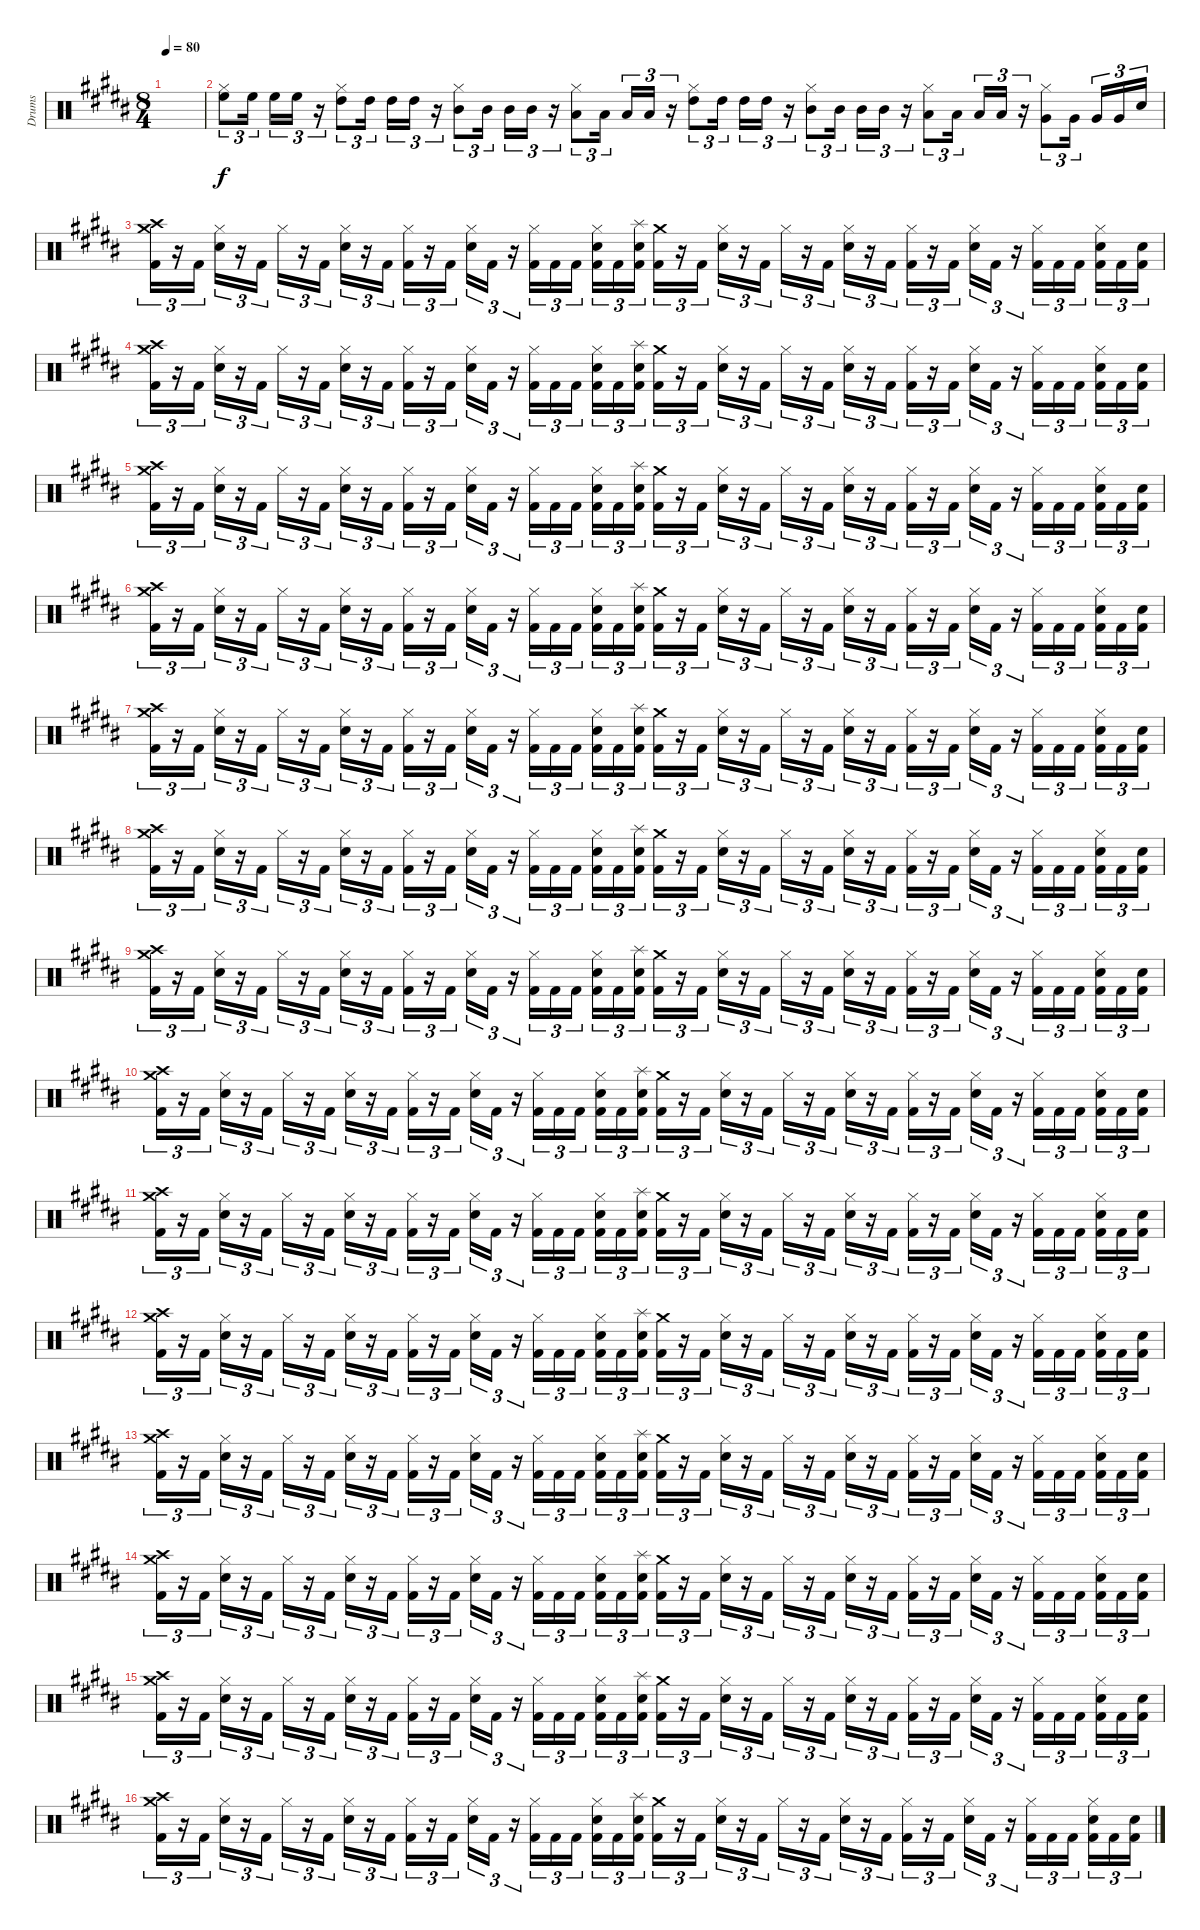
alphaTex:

\track ("Drums" "Drums") {instrument percussion}
\staff {score}
\articulation defaults
\ts (8 4)
\tempo 80
\clef neutral
\ks g#minor
|
("Hi-Hat (closed)" "High Floor Tom (hit)").8{tu (3 2)} "High Floor Tom (hit)".16{tu (3 2)} "High Floor Tom (hit)".16{tu (3 2)} "High Floor Tom (hit)".16{tu (3 2)} r.16{tu (3 2)} ("Hi-Hat (closed)" "High Tom (hit)").8{tu (3 2)} "High Tom (hit)".16{tu (3 2)} "High Tom (hit)".16{tu (3 2)} "High Tom (hit)".16{tu (3 2)} r.16{tu (3 2)} ("Hi-Hat (closed)" "Mid Tom (hit)").8{tu (3 2)} "Mid Tom (hit)".16{tu (3 2)} "Mid Tom (hit)".16{tu (3 2)} "Mid Tom (hit)".16{tu (3 2)} r.16{tu (3 2)} ("Hi-Hat (closed)" "Low Tom (hit)").8{tu (3 2)} "Low Tom (hit)".16{tu (3 2)} "Low Tom (hit)".16{tu (3 2)} "Low Tom (hit)".16{tu (3 2)} r.16{tu (3 2)} ("Hi-Hat (closed)" "High Tom (hit)").8{tu (3 2)} "High Tom (hit)".16{tu (3 2)} "High Tom (hit)".16{tu (3 2)} "High Tom (hit)".16{tu (3 2)} r.16{tu (3 2)} ("Hi-Hat (closed)" "Mid Tom (hit)").8{tu (3 2)} "Mid Tom (hit)".16{tu (3 2)} "Mid Tom (hit)".16{tu (3 2)} "Mid Tom (hit)".16{tu (3 2)} r.16{tu (3 2)} ("Hi-Hat (closed)" "Low Tom (hit)").8{tu (3 2)} "Low Tom (hit)".16{tu (3 2)} "Low Tom (hit)".16{tu (3 2)} "Low Tom (hit)".16{tu (3 2)} r.16{tu (3 2)} ("Hi-Hat (closed)" "Very Low Tom (hit)").8{tu (3 2)} "Very Low Tom (hit)".16{tu (3 2)} "Very Low Tom (hit)".16{tu (3 2)} "Very Low Tom (hit)".16{tu (3 2)} "Snare (hit) 2".16{tu (3 2)} |
("Crash medium (hit)" "Crash high (hit)" "Kick (hit) 2").16{tu (3 2)} r.16{tu (3 2)} "Kick (hit) 2".16{tu (3 2)} ("Hi-Hat (closed)" "Snare (hit) 2").16{tu (3 2)} r.16{tu (3 2)} "Kick (hit) 2".16{tu (3 2)} "Hi-Hat (closed)".16{tu (3 2)} r.16{tu (3 2)} "Kick (hit) 2".16{tu (3 2)} ("Hi-Hat (closed)" "Snare (hit) 2").16{tu (3 2)} r.16{tu (3 2)} "Kick (hit) 2".16{tu (3 2)} ("Hi-Hat (closed)" "Kick (hit) 2").16{tu (3 2)} r.16{tu (3 2)} "Kick (hit) 2".16{tu (3 2)} ("Hi-Hat (closed)" "Snare (hit) 2").16{tu (3 2)} "Kick (hit) 2".16{tu (3 2)} r.16{tu (3 2)} ("Hi-Hat (closed)" "Kick (hit) 2").16{tu (3 2)} "Kick (hit) 2".16{tu (3 2)} "Kick (hit) 2".16{tu (3 2)} ("Hi-Hat (closed)" "Snare (hit) 2" "Kick (hit) 2").16{tu (3 2)} "Kick (hit) 2".16{tu (3 2)} ("Splash (hit)" "Snare (hit) 2" "Kick (hit) 2").16{tu (3 2)} ("Crash medium (hit)" "Kick (hit) 2").16{tu (3 2)} r.16{tu (3 2)} "Kick (hit) 2".16{tu (3 2)} ("Hi-Hat (closed)" "Snare (hit) 2").16{tu (3 2)} r.16{tu (3 2)} "Kick (hit) 2".16{tu (3 2)} "Hi-Hat (closed)".16{tu (3 2)} r.16{tu (3 2)} "Kick (hit) 2".16{tu (3 2)} ("Hi-Hat (closed)" "Snare (hit) 2").16{tu (3 2)} r.16{tu (3 2)} "Kick (hit) 2".16{tu (3 2)} ("Hi-Hat (closed)" "Kick (hit) 2").16{tu (3 2)} r.16{tu (3 2)} "Kick (hit) 2".16{tu (3 2)} ("Hi-Hat (closed)" "Snare (hit) 2").16{tu (3 2)} "Kick (hit) 2".16{tu (3 2)} r.16{tu (3 2)} ("Hi-Hat (closed)" "Kick (hit) 2").16{tu (3 2)} "Kick (hit) 2".16{tu (3 2)} "Kick (hit) 2".16{tu (3 2)} ("Hi-Hat (closed)" "Snare (hit) 2" "Kick (hit) 2").16{tu (3 2)} "Kick (hit) 2".16{tu (3 2)} ("Snare (hit) 2" "Kick (hit) 2").16{tu (3 2)} |
("Crash medium (hit)" "Crash high (hit)" "Kick (hit) 2").16{tu (3 2)} r.16{tu (3 2)} "Kick (hit) 2".16{tu (3 2)} ("Hi-Hat (closed)" "Snare (hit) 2").16{tu (3 2)} r.16{tu (3 2)} "Kick (hit) 2".16{tu (3 2)} "Hi-Hat (closed)".16{tu (3 2)} r.16{tu (3 2)} "Kick (hit) 2".16{tu (3 2)} ("Hi-Hat (closed)" "Snare (hit) 2").16{tu (3 2)} r.16{tu (3 2)} "Kick (hit) 2".16{tu (3 2)} ("Hi-Hat (closed)" "Kick (hit) 2").16{tu (3 2)} r.16{tu (3 2)} "Kick (hit) 2".16{tu (3 2)} ("Hi-Hat (closed)" "Snare (hit) 2").16{tu (3 2)} "Kick (hit) 2".16{tu (3 2)} r.16{tu (3 2)} ("Hi-Hat (closed)" "Kick (hit) 2").16{tu (3 2)} "Kick (hit) 2".16{tu (3 2)} "Kick (hit) 2".16{tu (3 2)} ("Hi-Hat (closed)" "Snare (hit) 2" "Kick (hit) 2").16{tu (3 2)} "Kick (hit) 2".16{tu (3 2)} ("Splash (hit)" "Snare (hit) 2" "Kick (hit) 2").16{tu (3 2)} ("Crash medium (hit)" "Kick (hit) 2").16{tu (3 2)} r.16{tu (3 2)} "Kick (hit) 2".16{tu (3 2)} ("Hi-Hat (closed)" "Snare (hit) 2").16{tu (3 2)} r.16{tu (3 2)} "Kick (hit) 2".16{tu (3 2)} "Hi-Hat (closed)".16{tu (3 2)} r.16{tu (3 2)} "Kick (hit) 2".16{tu (3 2)} ("Hi-Hat (closed)" "Snare (hit) 2").16{tu (3 2)} r.16{tu (3 2)} "Kick (hit) 2".16{tu (3 2)} ("Hi-Hat (closed)" "Kick (hit) 2").16{tu (3 2)} r.16{tu (3 2)} "Kick (hit) 2".16{tu (3 2)} ("Hi-Hat (closed)" "Snare (hit) 2").16{tu (3 2)} "Kick (hit) 2".16{tu (3 2)} r.16{tu (3 2)} ("Hi-Hat (closed)" "Kick (hit) 2").16{tu (3 2)} "Kick (hit) 2".16{tu (3 2)} "Kick (hit) 2".16{tu (3 2)} ("Hi-Hat (closed)" "Snare (hit) 2" "Kick (hit) 2").16{tu (3 2)} "Kick (hit) 2".16{tu (3 2)} ("Snare (hit) 2" "Kick (hit) 2").16{tu (3 2)} |
("Crash medium (hit)" "Crash high (hit)" "Kick (hit) 2").16{tu (3 2)} r.16{tu (3 2)} "Kick (hit) 2".16{tu (3 2)} ("Hi-Hat (closed)" "Snare (hit) 2").16{tu (3 2)} r.16{tu (3 2)} "Kick (hit) 2".16{tu (3 2)} "Hi-Hat (closed)".16{tu (3 2)} r.16{tu (3 2)} "Kick (hit) 2".16{tu (3 2)} ("Hi-Hat (closed)" "Snare (hit) 2").16{tu (3 2)} r.16{tu (3 2)} "Kick (hit) 2".16{tu (3 2)} ("Hi-Hat (closed)" "Kick (hit) 2").16{tu (3 2)} r.16{tu (3 2)} "Kick (hit) 2".16{tu (3 2)} ("Hi-Hat (closed)" "Snare (hit) 2").16{tu (3 2)} "Kick (hit) 2".16{tu (3 2)} r.16{tu (3 2)} ("Hi-Hat (closed)" "Kick (hit) 2").16{tu (3 2)} "Kick (hit) 2".16{tu (3 2)} "Kick (hit) 2".16{tu (3 2)} ("Hi-Hat (closed)" "Snare (hit) 2" "Kick (hit) 2").16{tu (3 2)} "Kick (hit) 2".16{tu (3 2)} ("Splash (hit)" "Snare (hit) 2" "Kick (hit) 2").16{tu (3 2)} ("Crash medium (hit)" "Kick (hit) 2").16{tu (3 2)} r.16{tu (3 2)} "Kick (hit) 2".16{tu (3 2)} ("Hi-Hat (closed)" "Snare (hit) 2").16{tu (3 2)} r.16{tu (3 2)} "Kick (hit) 2".16{tu (3 2)} "Hi-Hat (closed)".16{tu (3 2)} r.16{tu (3 2)} "Kick (hit) 2".16{tu (3 2)} ("Hi-Hat (closed)" "Snare (hit) 2").16{tu (3 2)} r.16{tu (3 2)} "Kick (hit) 2".16{tu (3 2)} ("Hi-Hat (closed)" "Kick (hit) 2").16{tu (3 2)} r.16{tu (3 2)} "Kick (hit) 2".16{tu (3 2)} ("Hi-Hat (closed)" "Snare (hit) 2").16{tu (3 2)} "Kick (hit) 2".16{tu (3 2)} r.16{tu (3 2)} ("Hi-Hat (closed)" "Kick (hit) 2").16{tu (3 2)} "Kick (hit) 2".16{tu (3 2)} "Kick (hit) 2".16{tu (3 2)} ("Hi-Hat (closed)" "Snare (hit) 2" "Kick (hit) 2").16{tu (3 2)} "Kick (hit) 2".16{tu (3 2)} ("Snare (hit) 2" "Kick (hit) 2").16{tu (3 2)} |
("Crash medium (hit)" "Crash high (hit)" "Kick (hit) 2").16{tu (3 2)} r.16{tu (3 2)} "Kick (hit) 2".16{tu (3 2)} ("Hi-Hat (closed)" "Snare (hit) 2").16{tu (3 2)} r.16{tu (3 2)} "Kick (hit) 2".16{tu (3 2)} "Hi-Hat (closed)".16{tu (3 2)} r.16{tu (3 2)} "Kick (hit) 2".16{tu (3 2)} ("Hi-Hat (closed)" "Snare (hit) 2").16{tu (3 2)} r.16{tu (3 2)} "Kick (hit) 2".16{tu (3 2)} ("Hi-Hat (closed)" "Kick (hit) 2").16{tu (3 2)} r.16{tu (3 2)} "Kick (hit) 2".16{tu (3 2)} ("Hi-Hat (closed)" "Snare (hit) 2").16{tu (3 2)} "Kick (hit) 2".16{tu (3 2)} r.16{tu (3 2)} ("Hi-Hat (closed)" "Kick (hit) 2").16{tu (3 2)} "Kick (hit) 2".16{tu (3 2)} "Kick (hit) 2".16{tu (3 2)} ("Hi-Hat (closed)" "Snare (hit) 2" "Kick (hit) 2").16{tu (3 2)} "Kick (hit) 2".16{tu (3 2)} ("Splash (hit)" "Snare (hit) 2" "Kick (hit) 2").16{tu (3 2)} ("Crash medium (hit)" "Kick (hit) 2").16{tu (3 2)} r.16{tu (3 2)} "Kick (hit) 2".16{tu (3 2)} ("Hi-Hat (closed)" "Snare (hit) 2").16{tu (3 2)} r.16{tu (3 2)} "Kick (hit) 2".16{tu (3 2)} "Hi-Hat (closed)".16{tu (3 2)} r.16{tu (3 2)} "Kick (hit) 2".16{tu (3 2)} ("Hi-Hat (closed)" "Snare (hit) 2").16{tu (3 2)} r.16{tu (3 2)} "Kick (hit) 2".16{tu (3 2)} ("Hi-Hat (closed)" "Kick (hit) 2").16{tu (3 2)} r.16{tu (3 2)} "Kick (hit) 2".16{tu (3 2)} ("Hi-Hat (closed)" "Snare (hit) 2").16{tu (3 2)} "Kick (hit) 2".16{tu (3 2)} r.16{tu (3 2)} ("Hi-Hat (closed)" "Kick (hit) 2").16{tu (3 2)} "Kick (hit) 2".16{tu (3 2)} "Kick (hit) 2".16{tu (3 2)} ("Hi-Hat (closed)" "Snare (hit) 2" "Kick (hit) 2").16{tu (3 2)} "Kick (hit) 2".16{tu (3 2)} ("Snare (hit) 2" "Kick (hit) 2").16{tu (3 2)} |
("Crash medium (hit)" "Crash high (hit)" "Kick (hit) 2").16{tu (3 2)} r.16{tu (3 2)} "Kick (hit) 2".16{tu (3 2)} ("Hi-Hat (closed)" "Snare (hit) 2").16{tu (3 2)} r.16{tu (3 2)} "Kick (hit) 2".16{tu (3 2)} "Hi-Hat (closed)".16{tu (3 2)} r.16{tu (3 2)} "Kick (hit) 2".16{tu (3 2)} ("Hi-Hat (closed)" "Snare (hit) 2").16{tu (3 2)} r.16{tu (3 2)} "Kick (hit) 2".16{tu (3 2)} ("Hi-Hat (closed)" "Kick (hit) 2").16{tu (3 2)} r.16{tu (3 2)} "Kick (hit) 2".16{tu (3 2)} ("Hi-Hat (closed)" "Snare (hit) 2").16{tu (3 2)} "Kick (hit) 2".16{tu (3 2)} r.16{tu (3 2)} ("Hi-Hat (closed)" "Kick (hit) 2").16{tu (3 2)} "Kick (hit) 2".16{tu (3 2)} "Kick (hit) 2".16{tu (3 2)} ("Hi-Hat (closed)" "Snare (hit) 2" "Kick (hit) 2").16{tu (3 2)} "Kick (hit) 2".16{tu (3 2)} ("Splash (hit)" "Snare (hit) 2" "Kick (hit) 2").16{tu (3 2)} ("Crash medium (hit)" "Kick (hit) 2").16{tu (3 2)} r.16{tu (3 2)} "Kick (hit) 2".16{tu (3 2)} ("Hi-Hat (closed)" "Snare (hit) 2").16{tu (3 2)} r.16{tu (3 2)} "Kick (hit) 2".16{tu (3 2)} "Hi-Hat (closed)".16{tu (3 2)} r.16{tu (3 2)} "Kick (hit) 2".16{tu (3 2)} ("Hi-Hat (closed)" "Snare (hit) 2").16{tu (3 2)} r.16{tu (3 2)} "Kick (hit) 2".16{tu (3 2)} ("Hi-Hat (closed)" "Kick (hit) 2").16{tu (3 2)} r.16{tu (3 2)} "Kick (hit) 2".16{tu (3 2)} ("Hi-Hat (closed)" "Snare (hit) 2").16{tu (3 2)} "Kick (hit) 2".16{tu (3 2)} r.16{tu (3 2)} ("Hi-Hat (closed)" "Kick (hit) 2").16{tu (3 2)} "Kick (hit) 2".16{tu (3 2)} "Kick (hit) 2".16{tu (3 2)} ("Hi-Hat (closed)" "Snare (hit) 2" "Kick (hit) 2").16{tu (3 2)} "Kick (hit) 2".16{tu (3 2)} ("Snare (hit) 2" "Kick (hit) 2").16{tu (3 2)} |
("Crash medium (hit)" "Crash high (hit)" "Kick (hit) 2").16{tu (3 2)} r.16{tu (3 2)} "Kick (hit) 2".16{tu (3 2)} ("Hi-Hat (closed)" "Snare (hit) 2").16{tu (3 2)} r.16{tu (3 2)} "Kick (hit) 2".16{tu (3 2)} "Hi-Hat (closed)".16{tu (3 2)} r.16{tu (3 2)} "Kick (hit) 2".16{tu (3 2)} ("Hi-Hat (closed)" "Snare (hit) 2").16{tu (3 2)} r.16{tu (3 2)} "Kick (hit) 2".16{tu (3 2)} ("Hi-Hat (closed)" "Kick (hit) 2").16{tu (3 2)} r.16{tu (3 2)} "Kick (hit) 2".16{tu (3 2)} ("Hi-Hat (closed)" "Snare (hit) 2").16{tu (3 2)} "Kick (hit) 2".16{tu (3 2)} r.16{tu (3 2)} ("Hi-Hat (closed)" "Kick (hit) 2").16{tu (3 2)} "Kick (hit) 2".16{tu (3 2)} "Kick (hit) 2".16{tu (3 2)} ("Hi-Hat (closed)" "Snare (hit) 2" "Kick (hit) 2").16{tu (3 2)} "Kick (hit) 2".16{tu (3 2)} ("Splash (hit)" "Snare (hit) 2" "Kick (hit) 2").16{tu (3 2)} ("Crash medium (hit)" "Kick (hit) 2").16{tu (3 2)} r.16{tu (3 2)} "Kick (hit) 2".16{tu (3 2)} ("Hi-Hat (closed)" "Snare (hit) 2").16{tu (3 2)} r.16{tu (3 2)} "Kick (hit) 2".16{tu (3 2)} "Hi-Hat (closed)".16{tu (3 2)} r.16{tu (3 2)} "Kick (hit) 2".16{tu (3 2)} ("Hi-Hat (closed)" "Snare (hit) 2").16{tu (3 2)} r.16{tu (3 2)} "Kick (hit) 2".16{tu (3 2)} ("Hi-Hat (closed)" "Kick (hit) 2").16{tu (3 2)} r.16{tu (3 2)} "Kick (hit) 2".16{tu (3 2)} ("Hi-Hat (closed)" "Snare (hit) 2").16{tu (3 2)} "Kick (hit) 2".16{tu (3 2)} r.16{tu (3 2)} ("Hi-Hat (closed)" "Kick (hit) 2").16{tu (3 2)} "Kick (hit) 2".16{tu (3 2)} "Kick (hit) 2".16{tu (3 2)} ("Hi-Hat (closed)" "Snare (hit) 2" "Kick (hit) 2").16{tu (3 2)} "Kick (hit) 2".16{tu (3 2)} ("Snare (hit) 2" "Kick (hit) 2").16{tu (3 2)} |
("Crash medium (hit)" "Crash high (hit)" "Kick (hit) 2").16{tu (3 2)} r.16{tu (3 2)} "Kick (hit) 2".16{tu (3 2)} ("Hi-Hat (closed)" "Snare (hit) 2").16{tu (3 2)} r.16{tu (3 2)} "Kick (hit) 2".16{tu (3 2)} "Hi-Hat (closed)".16{tu (3 2)} r.16{tu (3 2)} "Kick (hit) 2".16{tu (3 2)} ("Hi-Hat (closed)" "Snare (hit) 2").16{tu (3 2)} r.16{tu (3 2)} "Kick (hit) 2".16{tu (3 2)} ("Hi-Hat (closed)" "Kick (hit) 2").16{tu (3 2)} r.16{tu (3 2)} "Kick (hit) 2".16{tu (3 2)} ("Hi-Hat (closed)" "Snare (hit) 2").16{tu (3 2)} "Kick (hit) 2".16{tu (3 2)} r.16{tu (3 2)} ("Hi-Hat (closed)" "Kick (hit) 2").16{tu (3 2)} "Kick (hit) 2".16{tu (3 2)} "Kick (hit) 2".16{tu (3 2)} ("Hi-Hat (closed)" "Snare (hit) 2" "Kick (hit) 2").16{tu (3 2)} "Kick (hit) 2".16{tu (3 2)} ("Splash (hit)" "Snare (hit) 2" "Kick (hit) 2").16{tu (3 2)} ("Crash medium (hit)" "Kick (hit) 2").16{tu (3 2)} r.16{tu (3 2)} "Kick (hit) 2".16{tu (3 2)} ("Hi-Hat (closed)" "Snare (hit) 2").16{tu (3 2)} r.16{tu (3 2)} "Kick (hit) 2".16{tu (3 2)} "Hi-Hat (closed)".16{tu (3 2)} r.16{tu (3 2)} "Kick (hit) 2".16{tu (3 2)} ("Hi-Hat (closed)" "Snare (hit) 2").16{tu (3 2)} r.16{tu (3 2)} "Kick (hit) 2".16{tu (3 2)} ("Hi-Hat (closed)" "Kick (hit) 2").16{tu (3 2)} r.16{tu (3 2)} "Kick (hit) 2".16{tu (3 2)} ("Hi-Hat (closed)" "Snare (hit) 2").16{tu (3 2)} "Kick (hit) 2".16{tu (3 2)} r.16{tu (3 2)} ("Hi-Hat (closed)" "Kick (hit) 2").16{tu (3 2)} "Kick (hit) 2".16{tu (3 2)} "Kick (hit) 2".16{tu (3 2)} ("Hi-Hat (closed)" "Snare (hit) 2" "Kick (hit) 2").16{tu (3 2)} "Kick (hit) 2".16{tu (3 2)} ("Snare (hit) 2" "Kick (hit) 2").16{tu (3 2)} |
("Crash medium (hit)" "Crash high (hit)" "Kick (hit) 2").16{tu (3 2)} r.16{tu (3 2)} "Kick (hit) 2".16{tu (3 2)} ("Hi-Hat (closed)" "Snare (hit) 2").16{tu (3 2)} r.16{tu (3 2)} "Kick (hit) 2".16{tu (3 2)} "Hi-Hat (closed)".16{tu (3 2)} r.16{tu (3 2)} "Kick (hit) 2".16{tu (3 2)} ("Hi-Hat (closed)" "Snare (hit) 2").16{tu (3 2)} r.16{tu (3 2)} "Kick (hit) 2".16{tu (3 2)} ("Hi-Hat (closed)" "Kick (hit) 2").16{tu (3 2)} r.16{tu (3 2)} "Kick (hit) 2".16{tu (3 2)} ("Hi-Hat (closed)" "Snare (hit) 2").16{tu (3 2)} "Kick (hit) 2".16{tu (3 2)} r.16{tu (3 2)} ("Hi-Hat (closed)" "Kick (hit) 2").16{tu (3 2)} "Kick (hit) 2".16{tu (3 2)} "Kick (hit) 2".16{tu (3 2)} ("Hi-Hat (closed)" "Snare (hit) 2" "Kick (hit) 2").16{tu (3 2)} "Kick (hit) 2".16{tu (3 2)} ("Splash (hit)" "Snare (hit) 2" "Kick (hit) 2").16{tu (3 2)} ("Crash medium (hit)" "Kick (hit) 2").16{tu (3 2)} r.16{tu (3 2)} "Kick (hit) 2".16{tu (3 2)} ("Hi-Hat (closed)" "Snare (hit) 2").16{tu (3 2)} r.16{tu (3 2)} "Kick (hit) 2".16{tu (3 2)} "Hi-Hat (closed)".16{tu (3 2)} r.16{tu (3 2)} "Kick (hit) 2".16{tu (3 2)} ("Hi-Hat (closed)" "Snare (hit) 2").16{tu (3 2)} r.16{tu (3 2)} "Kick (hit) 2".16{tu (3 2)} ("Hi-Hat (closed)" "Kick (hit) 2").16{tu (3 2)} r.16{tu (3 2)} "Kick (hit) 2".16{tu (3 2)} ("Hi-Hat (closed)" "Snare (hit) 2").16{tu (3 2)} "Kick (hit) 2".16{tu (3 2)} r.16{tu (3 2)} ("Hi-Hat (closed)" "Kick (hit) 2").16{tu (3 2)} "Kick (hit) 2".16{tu (3 2)} "Kick (hit) 2".16{tu (3 2)} ("Hi-Hat (closed)" "Snare (hit) 2" "Kick (hit) 2").16{tu (3 2)} "Kick (hit) 2".16{tu (3 2)} ("Snare (hit) 2" "Kick (hit) 2").16{tu (3 2)} |
("Crash medium (hit)" "Crash high (hit)" "Kick (hit) 2").16{tu (3 2)} r.16{tu (3 2)} "Kick (hit) 2".16{tu (3 2)} ("Hi-Hat (closed)" "Snare (hit) 2").16{tu (3 2)} r.16{tu (3 2)} "Kick (hit) 2".16{tu (3 2)} "Hi-Hat (closed)".16{tu (3 2)} r.16{tu (3 2)} "Kick (hit) 2".16{tu (3 2)} ("Hi-Hat (closed)" "Snare (hit) 2").16{tu (3 2)} r.16{tu (3 2)} "Kick (hit) 2".16{tu (3 2)} ("Hi-Hat (closed)" "Kick (hit) 2").16{tu (3 2)} r.16{tu (3 2)} "Kick (hit) 2".16{tu (3 2)} ("Hi-Hat (closed)" "Snare (hit) 2").16{tu (3 2)} "Kick (hit) 2".16{tu (3 2)} r.16{tu (3 2)} ("Hi-Hat (closed)" "Kick (hit) 2").16{tu (3 2)} "Kick (hit) 2".16{tu (3 2)} "Kick (hit) 2".16{tu (3 2)} ("Hi-Hat (closed)" "Snare (hit) 2" "Kick (hit) 2").16{tu (3 2)} "Kick (hit) 2".16{tu (3 2)} ("Splash (hit)" "Snare (hit) 2" "Kick (hit) 2").16{tu (3 2)} ("Crash medium (hit)" "Kick (hit) 2").16{tu (3 2)} r.16{tu (3 2)} "Kick (hit) 2".16{tu (3 2)} ("Hi-Hat (closed)" "Snare (hit) 2").16{tu (3 2)} r.16{tu (3 2)} "Kick (hit) 2".16{tu (3 2)} "Hi-Hat (closed)".16{tu (3 2)} r.16{tu (3 2)} "Kick (hit) 2".16{tu (3 2)} ("Hi-Hat (closed)" "Snare (hit) 2").16{tu (3 2)} r.16{tu (3 2)} "Kick (hit) 2".16{tu (3 2)} ("Hi-Hat (closed)" "Kick (hit) 2").16{tu (3 2)} r.16{tu (3 2)} "Kick (hit) 2".16{tu (3 2)} ("Hi-Hat (closed)" "Snare (hit) 2").16{tu (3 2)} "Kick (hit) 2".16{tu (3 2)} r.16{tu (3 2)} ("Hi-Hat (closed)" "Kick (hit) 2").16{tu (3 2)} "Kick (hit) 2".16{tu (3 2)} "Kick (hit) 2".16{tu (3 2)} ("Hi-Hat (closed)" "Snare (hit) 2" "Kick (hit) 2").16{tu (3 2)} "Kick (hit) 2".16{tu (3 2)} ("Snare (hit) 2" "Kick (hit) 2").16{tu (3 2)} |
("Crash medium (hit)" "Crash high (hit)" "Kick (hit) 2").16{tu (3 2)} r.16{tu (3 2)} "Kick (hit) 2".16{tu (3 2)} ("Hi-Hat (closed)" "Snare (hit) 2").16{tu (3 2)} r.16{tu (3 2)} "Kick (hit) 2".16{tu (3 2)} "Hi-Hat (closed)".16{tu (3 2)} r.16{tu (3 2)} "Kick (hit) 2".16{tu (3 2)} ("Hi-Hat (closed)" "Snare (hit) 2").16{tu (3 2)} r.16{tu (3 2)} "Kick (hit) 2".16{tu (3 2)} ("Hi-Hat (closed)" "Kick (hit) 2").16{tu (3 2)} r.16{tu (3 2)} "Kick (hit) 2".16{tu (3 2)} ("Hi-Hat (closed)" "Snare (hit) 2").16{tu (3 2)} "Kick (hit) 2".16{tu (3 2)} r.16{tu (3 2)} ("Hi-Hat (closed)" "Kick (hit) 2").16{tu (3 2)} "Kick (hit) 2".16{tu (3 2)} "Kick (hit) 2".16{tu (3 2)} ("Hi-Hat (closed)" "Snare (hit) 2" "Kick (hit) 2").16{tu (3 2)} "Kick (hit) 2".16{tu (3 2)} ("Splash (hit)" "Snare (hit) 2" "Kick (hit) 2").16{tu (3 2)} ("Crash medium (hit)" "Kick (hit) 2").16{tu (3 2)} r.16{tu (3 2)} "Kick (hit) 2".16{tu (3 2)} ("Hi-Hat (closed)" "Snare (hit) 2").16{tu (3 2)} r.16{tu (3 2)} "Kick (hit) 2".16{tu (3 2)} "Hi-Hat (closed)".16{tu (3 2)} r.16{tu (3 2)} "Kick (hit) 2".16{tu (3 2)} ("Hi-Hat (closed)" "Snare (hit) 2").16{tu (3 2)} r.16{tu (3 2)} "Kick (hit) 2".16{tu (3 2)} ("Hi-Hat (closed)" "Kick (hit) 2").16{tu (3 2)} r.16{tu (3 2)} "Kick (hit) 2".16{tu (3 2)} ("Hi-Hat (closed)" "Snare (hit) 2").16{tu (3 2)} "Kick (hit) 2".16{tu (3 2)} r.16{tu (3 2)} ("Hi-Hat (closed)" "Kick (hit) 2").16{tu (3 2)} "Kick (hit) 2".16{tu (3 2)} "Kick (hit) 2".16{tu (3 2)} ("Hi-Hat (closed)" "Snare (hit) 2" "Kick (hit) 2").16{tu (3 2)} "Kick (hit) 2".16{tu (3 2)} ("Snare (hit) 2" "Kick (hit) 2").16{tu (3 2)} |
("Crash medium (hit)" "Crash high (hit)" "Kick (hit) 2").16{tu (3 2)} r.16{tu (3 2)} "Kick (hit) 2".16{tu (3 2)} ("Hi-Hat (closed)" "Snare (hit) 2").16{tu (3 2)} r.16{tu (3 2)} "Kick (hit) 2".16{tu (3 2)} "Hi-Hat (closed)".16{tu (3 2)} r.16{tu (3 2)} "Kick (hit) 2".16{tu (3 2)} ("Hi-Hat (closed)" "Snare (hit) 2").16{tu (3 2)} r.16{tu (3 2)} "Kick (hit) 2".16{tu (3 2)} ("Hi-Hat (closed)" "Kick (hit) 2").16{tu (3 2)} r.16{tu (3 2)} "Kick (hit) 2".16{tu (3 2)} ("Hi-Hat (closed)" "Snare (hit) 2").16{tu (3 2)} "Kick (hit) 2".16{tu (3 2)} r.16{tu (3 2)} ("Hi-Hat (closed)" "Kick (hit) 2").16{tu (3 2)} "Kick (hit) 2".16{tu (3 2)} "Kick (hit) 2".16{tu (3 2)} ("Hi-Hat (closed)" "Snare (hit) 2" "Kick (hit) 2").16{tu (3 2)} "Kick (hit) 2".16{tu (3 2)} ("Splash (hit)" "Snare (hit) 2" "Kick (hit) 2").16{tu (3 2)} ("Crash medium (hit)" "Kick (hit) 2").16{tu (3 2)} r.16{tu (3 2)} "Kick (hit) 2".16{tu (3 2)} ("Hi-Hat (closed)" "Snare (hit) 2").16{tu (3 2)} r.16{tu (3 2)} "Kick (hit) 2".16{tu (3 2)} "Hi-Hat (closed)".16{tu (3 2)} r.16{tu (3 2)} "Kick (hit) 2".16{tu (3 2)} ("Hi-Hat (closed)" "Snare (hit) 2").16{tu (3 2)} r.16{tu (3 2)} "Kick (hit) 2".16{tu (3 2)} ("Hi-Hat (closed)" "Kick (hit) 2").16{tu (3 2)} r.16{tu (3 2)} "Kick (hit) 2".16{tu (3 2)} ("Hi-Hat (closed)" "Snare (hit) 2").16{tu (3 2)} "Kick (hit) 2".16{tu (3 2)} r.16{tu (3 2)} ("Hi-Hat (closed)" "Kick (hit) 2").16{tu (3 2)} "Kick (hit) 2".16{tu (3 2)} "Kick (hit) 2".16{tu (3 2)} ("Hi-Hat (closed)" "Snare (hit) 2" "Kick (hit) 2").16{tu (3 2)} "Kick (hit) 2".16{tu (3 2)} ("Snare (hit) 2" "Kick (hit) 2").16{tu (3 2)} |
("Crash medium (hit)" "Crash high (hit)" "Kick (hit) 2").16{tu (3 2)} r.16{tu (3 2)} "Kick (hit) 2".16{tu (3 2)} ("Hi-Hat (closed)" "Snare (hit) 2").16{tu (3 2)} r.16{tu (3 2)} "Kick (hit) 2".16{tu (3 2)} "Hi-Hat (closed)".16{tu (3 2)} r.16{tu (3 2)} "Kick (hit) 2".16{tu (3 2)} ("Hi-Hat (closed)" "Snare (hit) 2").16{tu (3 2)} r.16{tu (3 2)} "Kick (hit) 2".16{tu (3 2)} ("Hi-Hat (closed)" "Kick (hit) 2").16{tu (3 2)} r.16{tu (3 2)} "Kick (hit) 2".16{tu (3 2)} ("Hi-Hat (closed)" "Snare (hit) 2").16{tu (3 2)} "Kick (hit) 2".16{tu (3 2)} r.16{tu (3 2)} ("Hi-Hat (closed)" "Kick (hit) 2").16{tu (3 2)} "Kick (hit) 2".16{tu (3 2)} "Kick (hit) 2".16{tu (3 2)} ("Hi-Hat (closed)" "Snare (hit) 2" "Kick (hit) 2").16{tu (3 2)} "Kick (hit) 2".16{tu (3 2)} ("Splash (hit)" "Snare (hit) 2" "Kick (hit) 2").16{tu (3 2)} ("Crash medium (hit)" "Kick (hit) 2").16{tu (3 2)} r.16{tu (3 2)} "Kick (hit) 2".16{tu (3 2)} ("Hi-Hat (closed)" "Snare (hit) 2").16{tu (3 2)} r.16{tu (3 2)} "Kick (hit) 2".16{tu (3 2)} "Hi-Hat (closed)".16{tu (3 2)} r.16{tu (3 2)} "Kick (hit) 2".16{tu (3 2)} ("Hi-Hat (closed)" "Snare (hit) 2").16{tu (3 2)} r.16{tu (3 2)} "Kick (hit) 2".16{tu (3 2)} ("Hi-Hat (closed)" "Kick (hit) 2").16{tu (3 2)} r.16{tu (3 2)} "Kick (hit) 2".16{tu (3 2)} ("Hi-Hat (closed)" "Snare (hit) 2").16{tu (3 2)} "Kick (hit) 2".16{tu (3 2)} r.16{tu (3 2)} ("Hi-Hat (closed)" "Kick (hit) 2").16{tu (3 2)} "Kick (hit) 2".16{tu (3 2)} "Kick (hit) 2".16{tu (3 2)} ("Hi-Hat (closed)" "Snare (hit) 2" "Kick (hit) 2").16{tu (3 2)} "Kick (hit) 2".16{tu (3 2)} ("Snare (hit) 2" "Kick (hit) 2").16{tu (3 2)} |
("Crash medium (hit)" "Crash high (hit)" "Kick (hit) 2").16{tu (3 2)} r.16{tu (3 2)} "Kick (hit) 2".16{tu (3 2)} ("Hi-Hat (closed)" "Snare (hit) 2").16{tu (3 2)} r.16{tu (3 2)} "Kick (hit) 2".16{tu (3 2)} "Hi-Hat (closed)".16{tu (3 2)} r.16{tu (3 2)} "Kick (hit) 2".16{tu (3 2)} ("Hi-Hat (closed)" "Snare (hit) 2").16{tu (3 2)} r.16{tu (3 2)} "Kick (hit) 2".16{tu (3 2)} ("Hi-Hat (closed)" "Kick (hit) 2").16{tu (3 2)} r.16{tu (3 2)} "Kick (hit) 2".16{tu (3 2)} ("Hi-Hat (closed)" "Snare (hit) 2").16{tu (3 2)} "Kick (hit) 2".16{tu (3 2)} r.16{tu (3 2)} ("Hi-Hat (closed)" "Kick (hit) 2").16{tu (3 2)} "Kick (hit) 2".16{tu (3 2)} "Kick (hit) 2".16{tu (3 2)} ("Hi-Hat (closed)" "Snare (hit) 2" "Kick (hit) 2").16{tu (3 2)} "Kick (hit) 2".16{tu (3 2)} ("Splash (hit)" "Snare (hit) 2" "Kick (hit) 2").16{tu (3 2)} ("Crash medium (hit)" "Kick (hit) 2").16{tu (3 2)} r.16{tu (3 2)} "Kick (hit) 2".16{tu (3 2)} ("Hi-Hat (closed)" "Snare (hit) 2").16{tu (3 2)} r.16{tu (3 2)} "Kick (hit) 2".16{tu (3 2)} "Hi-Hat (closed)".16{tu (3 2)} r.16{tu (3 2)} "Kick (hit) 2".16{tu (3 2)} ("Hi-Hat (closed)" "Snare (hit) 2").16{tu (3 2)} r.16{tu (3 2)} "Kick (hit) 2".16{tu (3 2)} ("Hi-Hat (closed)" "Kick (hit) 2").16{tu (3 2)} r.16{tu (3 2)} "Kick (hit) 2".16{tu (3 2)} ("Hi-Hat (closed)" "Snare (hit) 2").16{tu (3 2)} "Kick (hit) 2".16{tu (3 2)} r.16{tu (3 2)} ("Hi-Hat (closed)" "Kick (hit) 2").16{tu (3 2)} "Kick (hit) 2".16{tu (3 2)} "Kick (hit) 2".16{tu (3 2)} ("Hi-Hat (closed)" "Snare (hit) 2" "Kick (hit) 2").16{tu (3 2)} "Kick (hit) 2".16{tu (3 2)} ("Snare (hit) 2" "Kick (hit) 2").16{tu (3 2)} |
("Crash medium (hit)" "Crash high (hit)" "Kick (hit) 2").16{tu (3 2)} r.16{tu (3 2)} "Kick (hit) 2".16{tu (3 2)} ("Hi-Hat (closed)" "Snare (hit) 2").16{tu (3 2)} r.16{tu (3 2)} "Kick (hit) 2".16{tu (3 2)} "Hi-Hat (closed)".16{tu (3 2)} r.16{tu (3 2)} "Kick (hit) 2".16{tu (3 2)} ("Hi-Hat (closed)" "Snare (hit) 2").16{tu (3 2)} r.16{tu (3 2)} "Kick (hit) 2".16{tu (3 2)} ("Hi-Hat (closed)" "Kick (hit) 2").16{tu (3 2)} r.16{tu (3 2)} "Kick (hit) 2".16{tu (3 2)} ("Hi-Hat (closed)" "Snare (hit) 2").16{tu (3 2)} "Kick (hit) 2".16{tu (3 2)} r.16{tu (3 2)} ("Hi-Hat (closed)" "Kick (hit) 2").16{tu (3 2)} "Kick (hit) 2".16{tu (3 2)} "Kick (hit) 2".16{tu (3 2)} ("Hi-Hat (closed)" "Snare (hit) 2" "Kick (hit) 2").16{tu (3 2)} "Kick (hit) 2".16{tu (3 2)} ("Splash (hit)" "Snare (hit) 2" "Kick (hit) 2").16{tu (3 2)} ("Crash medium (hit)" "Kick (hit) 2").16{tu (3 2)} r.16{tu (3 2)} "Kick (hit) 2".16{tu (3 2)} ("Hi-Hat (closed)" "Snare (hit) 2").16{tu (3 2)} r.16{tu (3 2)} "Kick (hit) 2".16{tu (3 2)} "Hi-Hat (closed)".16{tu (3 2)} r.16{tu (3 2)} "Kick (hit) 2".16{tu (3 2)} ("Hi-Hat (closed)" "Snare (hit) 2").16{tu (3 2)} r.16{tu (3 2)} "Kick (hit) 2".16{tu (3 2)} ("Hi-Hat (closed)" "Kick (hit) 2").16{tu (3 2)} r.16{tu (3 2)} "Kick (hit) 2".16{tu (3 2)} ("Hi-Hat (closed)" "Snare (hit) 2").16{tu (3 2)} "Kick (hit) 2".16{tu (3 2)} r.16{tu (3 2)} ("Hi-Hat (closed)" "Kick (hit) 2").16{tu (3 2)} "Kick (hit) 2".16{tu (3 2)} "Kick (hit) 2".16{tu (3 2)} ("Hi-Hat (closed)" "Snare (hit) 2" "Kick (hit) 2").16{tu (3 2)} "Kick (hit) 2".16{tu (3 2)} ("Snare (hit) 2" "Kick (hit) 2").16{tu (3 2)}
